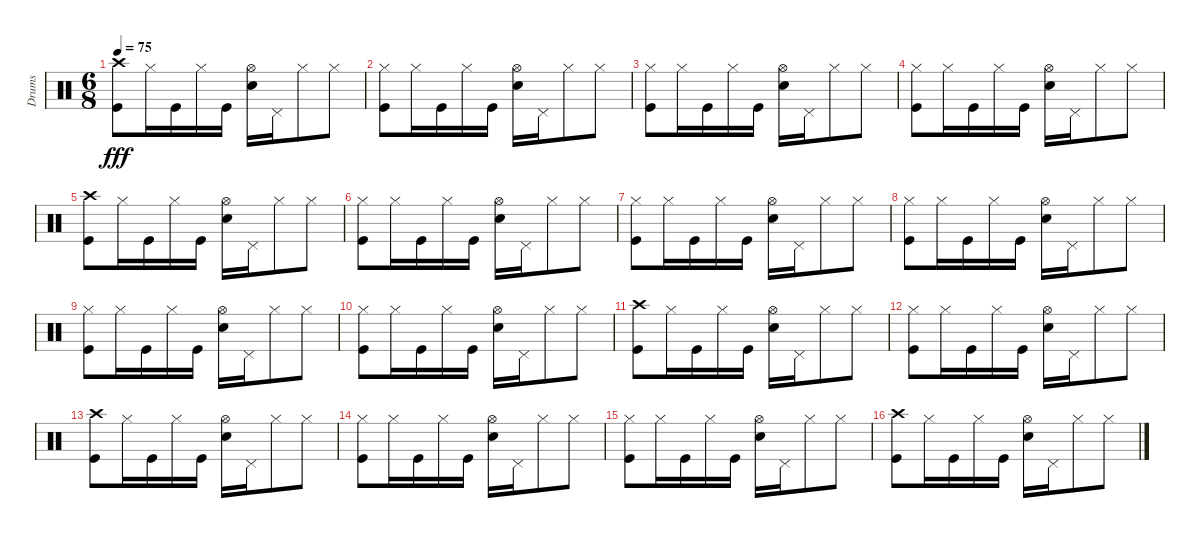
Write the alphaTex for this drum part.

\track ("Drums" "Drums") {instrument percussion}
\staff {score}
\articulation defaults
\ts (6 8)
\tempo 75
\clef neutral
\ks c
("Crash high (hit)" "Kick (hit)").8{dy fff} "Hi-Hat (closed)".16 "Kick (hit)".16 "Hi-Hat (closed)".16 "Kick (hit)".16 ("Hi-Hat (open)" "Snare (hit) 2").16 "Pedal Hi-Hat (hit)".16 "Hi-Hat (closed)".8 "Hi-Hat (closed)".8 |
("Hi-Hat (closed)" "Kick (hit)").8 "Hi-Hat (closed)".16 "Kick (hit)".16 "Hi-Hat (closed)".16 "Kick (hit)".16 ("Hi-Hat (open)" "Snare (hit) 2").16 "Pedal Hi-Hat (hit)".16 "Hi-Hat (closed)".8 "Hi-Hat (closed)".8 |
("Hi-Hat (closed)" "Kick (hit)").8 "Hi-Hat (closed)".16 "Kick (hit)".16 "Hi-Hat (closed)".16 "Kick (hit)".16 ("Hi-Hat (open)" "Snare (hit) 2").16 "Pedal Hi-Hat (hit)".16 "Hi-Hat (closed)".8 "Hi-Hat (closed)".8 |
("Hi-Hat (closed)" "Kick (hit)").8 "Hi-Hat (closed)".16 "Kick (hit)".16 "Hi-Hat (closed)".16 "Kick (hit)".16 ("Hi-Hat (open)" "Snare (hit) 2").16 "Pedal Hi-Hat (hit)".16 "Hi-Hat (closed)".8 "Hi-Hat (closed)".8 |
("Crash high (hit)" "Kick (hit)").8 "Hi-Hat (closed)".16 "Kick (hit)".16 "Hi-Hat (closed)".16 "Kick (hit)".16 ("Hi-Hat (open)" "Snare (hit) 2").16 "Pedal Hi-Hat (hit)".16 "Hi-Hat (closed)".8 "Hi-Hat (closed)".8 |
("Hi-Hat (closed)" "Kick (hit)").8 "Hi-Hat (closed)".16 "Kick (hit)".16 "Hi-Hat (closed)".16 "Kick (hit)".16 ("Hi-Hat (open)" "Snare (hit) 2").16 "Pedal Hi-Hat (hit)".16 "Hi-Hat (closed)".8 "Hi-Hat (closed)".8 |
("Hi-Hat (closed)" "Kick (hit)").8 "Hi-Hat (closed)".16 "Kick (hit)".16 "Hi-Hat (closed)".16 "Kick (hit)".16 ("Hi-Hat (open)" "Snare (hit) 2").16 "Pedal Hi-Hat (hit)".16 "Hi-Hat (closed)".8 "Hi-Hat (closed)".8 |
("Hi-Hat (closed)" "Kick (hit)").8 "Hi-Hat (closed)".16 "Kick (hit)".16 "Hi-Hat (closed)".16 "Kick (hit)".16 ("Hi-Hat (open)" "Snare (hit) 2").16 "Pedal Hi-Hat (hit)".16 "Hi-Hat (closed)".8 "Hi-Hat (closed)".8 |
("Hi-Hat (closed)" "Kick (hit)").8 "Hi-Hat (closed)".16 "Kick (hit)".16 "Hi-Hat (closed)".16 "Kick (hit)".16 ("Hi-Hat (open)" "Snare (hit) 2").16 "Pedal Hi-Hat (hit)".16 "Hi-Hat (closed)".8 "Hi-Hat (closed)".8 |
("Hi-Hat (closed)" "Kick (hit)").8 "Hi-Hat (closed)".16 "Kick (hit)".16 "Hi-Hat (closed)".16 "Kick (hit)".16 ("Hi-Hat (open)" "Snare (hit) 2").16 "Pedal Hi-Hat (hit)".16 "Hi-Hat (closed)".8 "Hi-Hat (closed)".8 |
("Crash high (hit)" "Kick (hit)").8 "Hi-Hat (closed)".16 "Kick (hit)".16 "Hi-Hat (closed)".16 "Kick (hit)".16 ("Hi-Hat (open)" "Snare (hit) 2").16 "Pedal Hi-Hat (hit)".16 "Hi-Hat (closed)".8 "Hi-Hat (closed)".8 |
("Hi-Hat (closed)" "Kick (hit)").8 "Hi-Hat (closed)".16 "Kick (hit)".16 "Hi-Hat (closed)".16 "Kick (hit)".16 ("Hi-Hat (open)" "Snare (hit) 2").16 "Pedal Hi-Hat (hit)".16 "Hi-Hat (closed)".8 "Hi-Hat (closed)".8 |
("Crash high (hit)" "Kick (hit)").8 "Hi-Hat (closed)".16 "Kick (hit)".16 "Hi-Hat (closed)".16 "Kick (hit)".16 ("Hi-Hat (open)" "Snare (hit) 2").16 "Pedal Hi-Hat (hit)".16 "Hi-Hat (closed)".8 "Hi-Hat (closed)".8 |
("Hi-Hat (closed)" "Kick (hit)").8 "Hi-Hat (closed)".16 "Kick (hit)".16 "Hi-Hat (closed)".16 "Kick (hit)".16 ("Hi-Hat (open)" "Snare (hit) 2").16 "Pedal Hi-Hat (hit)".16 "Hi-Hat (closed)".8 "Hi-Hat (closed)".8 |
("Hi-Hat (closed)" "Kick (hit)").8 "Hi-Hat (closed)".16 "Kick (hit)".16 "Hi-Hat (closed)".16 "Kick (hit)".16 ("Hi-Hat (open)" "Snare (hit) 2").16 "Pedal Hi-Hat (hit)".16 "Hi-Hat (closed)".8 "Hi-Hat (closed)".8 |
("Crash high (hit)" "Kick (hit)").8 "Hi-Hat (closed)".16 "Kick (hit)".16 "Hi-Hat (closed)".16 "Kick (hit)".16 ("Hi-Hat (open)" "Snare (hit) 2").16 "Pedal Hi-Hat (hit)".16 "Hi-Hat (closed)".8 "Hi-Hat (closed)".8
